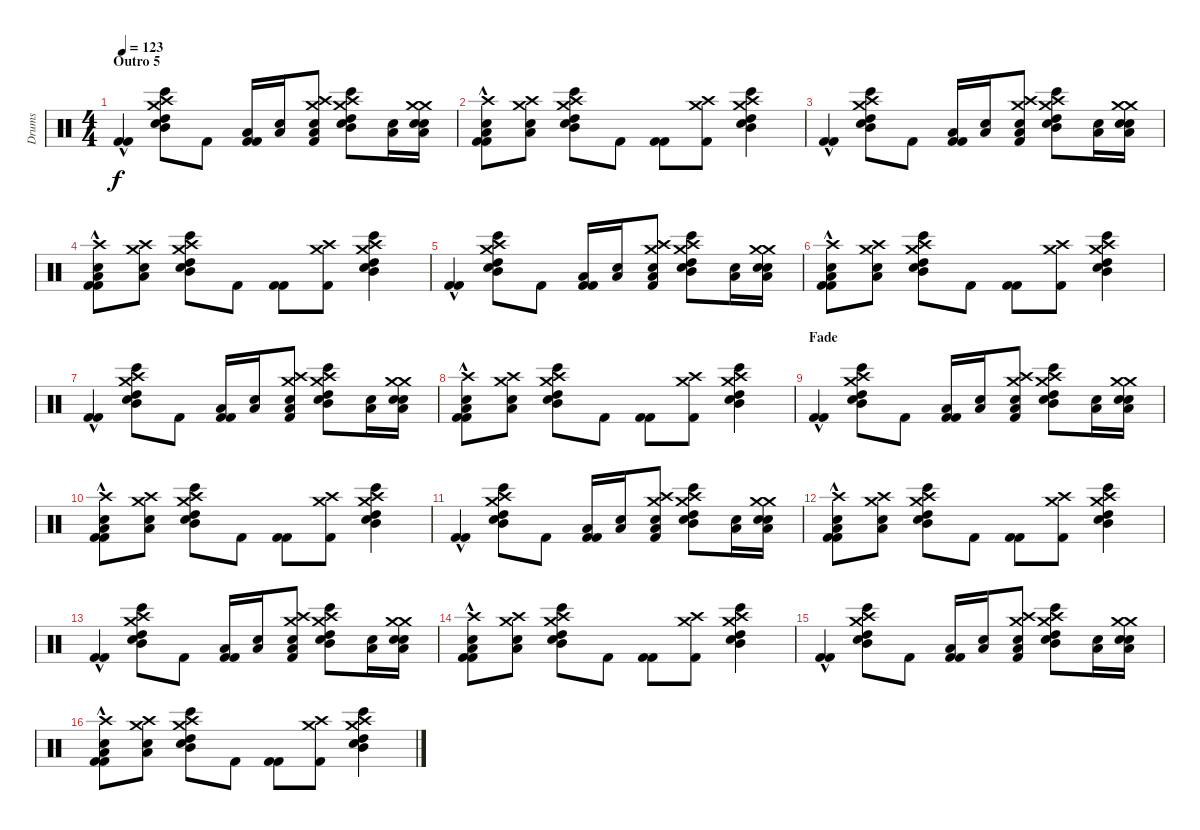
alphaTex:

\track ("Drums" "Drums") {instrument percussion}
\staff {score}
\articulation defaults
\ts (4 4)
\section ("" "Outro 5")
\tempo 123
\clef neutral
\ks c
("Kick (hit) 2"{hac} "Kick (hit) 2"{hac}).4{dy f} ("Crash medium (hit)" "Bongo High (hit)" "High Tom (hit)" "Mid Tom (hit)" "Snare (hit) 2" "Crash high (hit)").8 "Kick (hit) 2".8 ("Low Floor Tom (hit)" "Kick (hit) 2" "Kick (hit) 2").16 ("Snare (hit) 2" "Low Floor Tom (hit)").16 ("Crash medium (hit)" "Snare (hit) 2" "Low Floor Tom (hit)" "Kick (hit) 2" "Crash high (hit)").8 ("Crash medium (hit)" "Bongo High (hit)" "High Tom (hit)" "Mid Tom (hit)" "Snare (hit) 2" "Crash high (hit)").8 ("Low Floor Tom (hit)" "Snare (hit) 2").16 ("Crash medium (hit)" "Snare (hit) 2" "Low Floor Tom (hit)" "Snare (hit) 2" "Crash medium (hit)").16 |
("Crash high (hit)" "Snare (hit) 2" "Low Floor Tom (hit)" "Kick (hit) 2"{hac} "Kick (hit) 2"{hac}).8 ("Crash medium (hit)" "Snare (hit) 2" "Low Floor Tom (hit)" "Crash high (hit)").8 ("Crash medium (hit)" "Bongo High (hit)" "High Tom (hit)" "Mid Tom (hit)" "Snare (hit) 2" "Crash high (hit)").8 "Kick (hit) 2".8 ("Kick (hit) 2" "Kick (hit) 2").8 ("Crash medium (hit)" "Kick (hit) 2" "Crash high (hit)").8 ("Crash medium (hit)" "Bongo High (hit)" "High Tom (hit)" "Mid Tom (hit)" "Snare (hit) 2" "Crash high (hit)").4 |
("Kick (hit) 2"{hac} "Kick (hit) 2"{hac}).4 ("Crash medium (hit)" "Bongo High (hit)" "High Tom (hit)" "Mid Tom (hit)" "Snare (hit) 2" "Crash high (hit)").8 "Kick (hit) 2".8 ("Low Floor Tom (hit)" "Kick (hit) 2" "Kick (hit) 2").16 ("Snare (hit) 2" "Low Floor Tom (hit)").16 ("Crash medium (hit)" "Snare (hit) 2" "Low Floor Tom (hit)" "Kick (hit) 2" "Crash high (hit)").8 ("Crash medium (hit)" "Bongo High (hit)" "High Tom (hit)" "Mid Tom (hit)" "Snare (hit) 2" "Crash high (hit)").8 ("Low Floor Tom (hit)" "Snare (hit) 2").16 ("Crash medium (hit)" "Snare (hit) 2" "Low Floor Tom (hit)" "Snare (hit) 2" "Crash medium (hit)").16 |
("Crash high (hit)" "Snare (hit) 2" "Low Floor Tom (hit)" "Kick (hit) 2"{hac} "Kick (hit) 2"{hac}).8 ("Crash medium (hit)" "Snare (hit) 2" "Low Floor Tom (hit)" "Crash high (hit)").8 ("Crash medium (hit)" "Bongo High (hit)" "High Tom (hit)" "Mid Tom (hit)" "Snare (hit) 2" "Crash high (hit)").8 "Kick (hit) 2".8 ("Kick (hit) 2" "Kick (hit) 2").8 ("Crash medium (hit)" "Kick (hit) 2" "Crash high (hit)").8 ("Crash medium (hit)" "Bongo High (hit)" "High Tom (hit)" "Mid Tom (hit)" "Snare (hit) 2" "Crash high (hit)").4 |
("Kick (hit) 2"{hac} "Kick (hit) 2"{hac}).4 ("Crash medium (hit)" "Bongo High (hit)" "High Tom (hit)" "Mid Tom (hit)" "Snare (hit) 2" "Crash high (hit)").8 "Kick (hit) 2".8 ("Low Floor Tom (hit)" "Kick (hit) 2" "Kick (hit) 2").16 ("Snare (hit) 2" "Low Floor Tom (hit)").16 ("Crash medium (hit)" "Snare (hit) 2" "Low Floor Tom (hit)" "Kick (hit) 2" "Crash high (hit)").8 ("Crash medium (hit)" "Bongo High (hit)" "High Tom (hit)" "Mid Tom (hit)" "Snare (hit) 2" "Crash high (hit)").8 ("Low Floor Tom (hit)" "Snare (hit) 2").16 ("Crash medium (hit)" "Snare (hit) 2" "Low Floor Tom (hit)" "Snare (hit) 2" "Crash medium (hit)").16 |
("Crash high (hit)" "Snare (hit) 2" "Low Floor Tom (hit)" "Kick (hit) 2"{hac} "Kick (hit) 2"{hac}).8 ("Crash medium (hit)" "Snare (hit) 2" "Low Floor Tom (hit)" "Crash high (hit)").8 ("Crash medium (hit)" "Bongo High (hit)" "High Tom (hit)" "Mid Tom (hit)" "Snare (hit) 2" "Crash high (hit)").8 "Kick (hit) 2".8 ("Kick (hit) 2" "Kick (hit) 2").8 ("Crash medium (hit)" "Kick (hit) 2" "Crash high (hit)").8 ("Crash medium (hit)" "Bongo High (hit)" "High Tom (hit)" "Mid Tom (hit)" "Snare (hit) 2" "Crash high (hit)").4 |
("Kick (hit) 2"{hac} "Kick (hit) 2"{hac}).4 ("Crash medium (hit)" "Bongo High (hit)" "High Tom (hit)" "Mid Tom (hit)" "Snare (hit) 2" "Crash high (hit)").8 "Kick (hit) 2".8 ("Low Floor Tom (hit)" "Kick (hit) 2" "Kick (hit) 2").16 ("Snare (hit) 2" "Low Floor Tom (hit)").16 ("Crash medium (hit)" "Snare (hit) 2" "Low Floor Tom (hit)" "Kick (hit) 2" "Crash high (hit)").8 ("Crash medium (hit)" "Bongo High (hit)" "High Tom (hit)" "Mid Tom (hit)" "Snare (hit) 2" "Crash high (hit)").8 ("Low Floor Tom (hit)" "Snare (hit) 2").16 ("Crash medium (hit)" "Snare (hit) 2" "Low Floor Tom (hit)" "Snare (hit) 2" "Crash medium (hit)").16 |
("Crash high (hit)" "Snare (hit) 2" "Low Floor Tom (hit)" "Kick (hit) 2"{hac} "Kick (hit) 2"{hac}).8 ("Crash medium (hit)" "Snare (hit) 2" "Low Floor Tom (hit)" "Crash high (hit)").8 ("Crash medium (hit)" "Bongo High (hit)" "High Tom (hit)" "Mid Tom (hit)" "Snare (hit) 2" "Crash high (hit)").8 "Kick (hit) 2".8 ("Kick (hit) 2" "Kick (hit) 2").8 ("Crash medium (hit)" "Kick (hit) 2" "Crash high (hit)").8 ("Crash medium (hit)" "Bongo High (hit)" "High Tom (hit)" "Mid Tom (hit)" "Snare (hit) 2" "Crash high (hit)").4 |
\section ("" "Fade")
("Kick (hit) 2"{hac} "Kick (hit) 2"{hac}).4{volume 10} ("Crash medium (hit)" "Bongo High (hit)" "High Tom (hit)" "Mid Tom (hit)" "Snare (hit) 2" "Crash high (hit)").8 "Kick (hit) 2".8 ("Low Floor Tom (hit)" "Kick (hit) 2" "Kick (hit) 2").16 ("Snare (hit) 2" "Low Floor Tom (hit)").16 ("Crash medium (hit)" "Snare (hit) 2" "Low Floor Tom (hit)" "Kick (hit) 2" "Crash high (hit)").8 ("Crash medium (hit)" "Bongo High (hit)" "High Tom (hit)" "Mid Tom (hit)" "Snare (hit) 2" "Crash high (hit)").8 ("Low Floor Tom (hit)" "Snare (hit) 2").16 ("Crash medium (hit)" "Snare (hit) 2" "Low Floor Tom (hit)" "Snare (hit) 2" "Crash medium (hit)").16 |
("Crash high (hit)" "Snare (hit) 2" "Low Floor Tom (hit)" "Kick (hit) 2"{hac} "Kick (hit) 2"{hac}).8{volume 9} ("Crash medium (hit)" "Snare (hit) 2" "Low Floor Tom (hit)" "Crash high (hit)").8 ("Crash medium (hit)" "Bongo High (hit)" "High Tom (hit)" "Mid Tom (hit)" "Snare (hit) 2" "Crash high (hit)").8 "Kick (hit) 2".8 ("Kick (hit) 2" "Kick (hit) 2").8 ("Crash medium (hit)" "Kick (hit) 2" "Crash high (hit)").8 ("Crash medium (hit)" "Bongo High (hit)" "High Tom (hit)" "Mid Tom (hit)" "Snare (hit) 2" "Crash high (hit)").4 |
("Kick (hit) 2"{hac} "Kick (hit) 2"{hac}).4{volume 8} ("Crash medium (hit)" "Bongo High (hit)" "High Tom (hit)" "Mid Tom (hit)" "Snare (hit) 2" "Crash high (hit)").8 "Kick (hit) 2".8 ("Low Floor Tom (hit)" "Kick (hit) 2" "Kick (hit) 2").16 ("Snare (hit) 2" "Low Floor Tom (hit)").16 ("Crash medium (hit)" "Snare (hit) 2" "Low Floor Tom (hit)" "Kick (hit) 2" "Crash high (hit)").8 ("Crash medium (hit)" "Bongo High (hit)" "High Tom (hit)" "Mid Tom (hit)" "Snare (hit) 2" "Crash high (hit)").8 ("Low Floor Tom (hit)" "Snare (hit) 2").16 ("Crash medium (hit)" "Snare (hit) 2" "Low Floor Tom (hit)" "Snare (hit) 2" "Crash medium (hit)").16 |
("Crash high (hit)" "Snare (hit) 2" "Low Floor Tom (hit)" "Kick (hit) 2"{hac} "Kick (hit) 2"{hac}).8{volume 7} ("Crash medium (hit)" "Snare (hit) 2" "Low Floor Tom (hit)" "Crash high (hit)").8 ("Crash medium (hit)" "Bongo High (hit)" "High Tom (hit)" "Mid Tom (hit)" "Snare (hit) 2" "Crash high (hit)").8 "Kick (hit) 2".8 ("Kick (hit) 2" "Kick (hit) 2").8 ("Crash medium (hit)" "Kick (hit) 2" "Crash high (hit)").8 ("Crash medium (hit)" "Bongo High (hit)" "High Tom (hit)" "Mid Tom (hit)" "Snare (hit) 2" "Crash high (hit)").4 |
("Kick (hit) 2"{hac} "Kick (hit) 2"{hac}).4{volume 6} ("Crash medium (hit)" "Bongo High (hit)" "High Tom (hit)" "Mid Tom (hit)" "Snare (hit) 2" "Crash high (hit)").8 "Kick (hit) 2".8 ("Low Floor Tom (hit)" "Kick (hit) 2" "Kick (hit) 2").16 ("Snare (hit) 2" "Low Floor Tom (hit)").16 ("Crash medium (hit)" "Snare (hit) 2" "Low Floor Tom (hit)" "Kick (hit) 2" "Crash high (hit)").8 ("Crash medium (hit)" "Bongo High (hit)" "High Tom (hit)" "Mid Tom (hit)" "Snare (hit) 2" "Crash high (hit)").8 ("Low Floor Tom (hit)" "Snare (hit) 2").16 ("Crash medium (hit)" "Snare (hit) 2" "Low Floor Tom (hit)" "Snare (hit) 2" "Crash medium (hit)").16 |
("Crash high (hit)" "Snare (hit) 2" "Low Floor Tom (hit)" "Kick (hit) 2"{hac} "Kick (hit) 2"{hac}).8{volume 4} ("Crash medium (hit)" "Snare (hit) 2" "Low Floor Tom (hit)" "Crash high (hit)").8 ("Crash medium (hit)" "Bongo High (hit)" "High Tom (hit)" "Mid Tom (hit)" "Snare (hit) 2" "Crash high (hit)").8 "Kick (hit) 2".8 ("Kick (hit) 2" "Kick (hit) 2").8 ("Crash medium (hit)" "Kick (hit) 2" "Crash high (hit)").8 ("Crash medium (hit)" "Bongo High (hit)" "High Tom (hit)" "Mid Tom (hit)" "Snare (hit) 2" "Crash high (hit)").4 |
("Kick (hit) 2"{hac} "Kick (hit) 2"{hac}).4{volume 3} ("Crash medium (hit)" "Bongo High (hit)" "High Tom (hit)" "Mid Tom (hit)" "Snare (hit) 2" "Crash high (hit)").8 "Kick (hit) 2".8 ("Low Floor Tom (hit)" "Kick (hit) 2" "Kick (hit) 2").16 ("Snare (hit) 2" "Low Floor Tom (hit)").16 ("Crash medium (hit)" "Snare (hit) 2" "Low Floor Tom (hit)" "Kick (hit) 2" "Crash high (hit)").8 ("Crash medium (hit)" "Bongo High (hit)" "High Tom (hit)" "Mid Tom (hit)" "Snare (hit) 2" "Crash high (hit)").8 ("Low Floor Tom (hit)" "Snare (hit) 2").16 ("Crash medium (hit)" "Snare (hit) 2" "Low Floor Tom (hit)" "Snare (hit) 2" "Crash medium (hit)").16 |
("Crash high (hit)" "Snare (hit) 2" "Low Floor Tom (hit)" "Kick (hit) 2"{hac} "Kick (hit) 2"{hac}).8{volume 2} ("Crash medium (hit)" "Snare (hit) 2" "Low Floor Tom (hit)" "Crash high (hit)").8 ("Crash medium (hit)" "Bongo High (hit)" "High Tom (hit)" "Mid Tom (hit)" "Snare (hit) 2" "Crash high (hit)").8 "Kick (hit) 2".8 ("Kick (hit) 2" "Kick (hit) 2").8 ("Crash medium (hit)" "Kick (hit) 2" "Crash high (hit)").8 ("Crash medium (hit)" "Bongo High (hit)" "High Tom (hit)" "Mid Tom (hit)" "Snare (hit) 2" "Crash high (hit)").4
